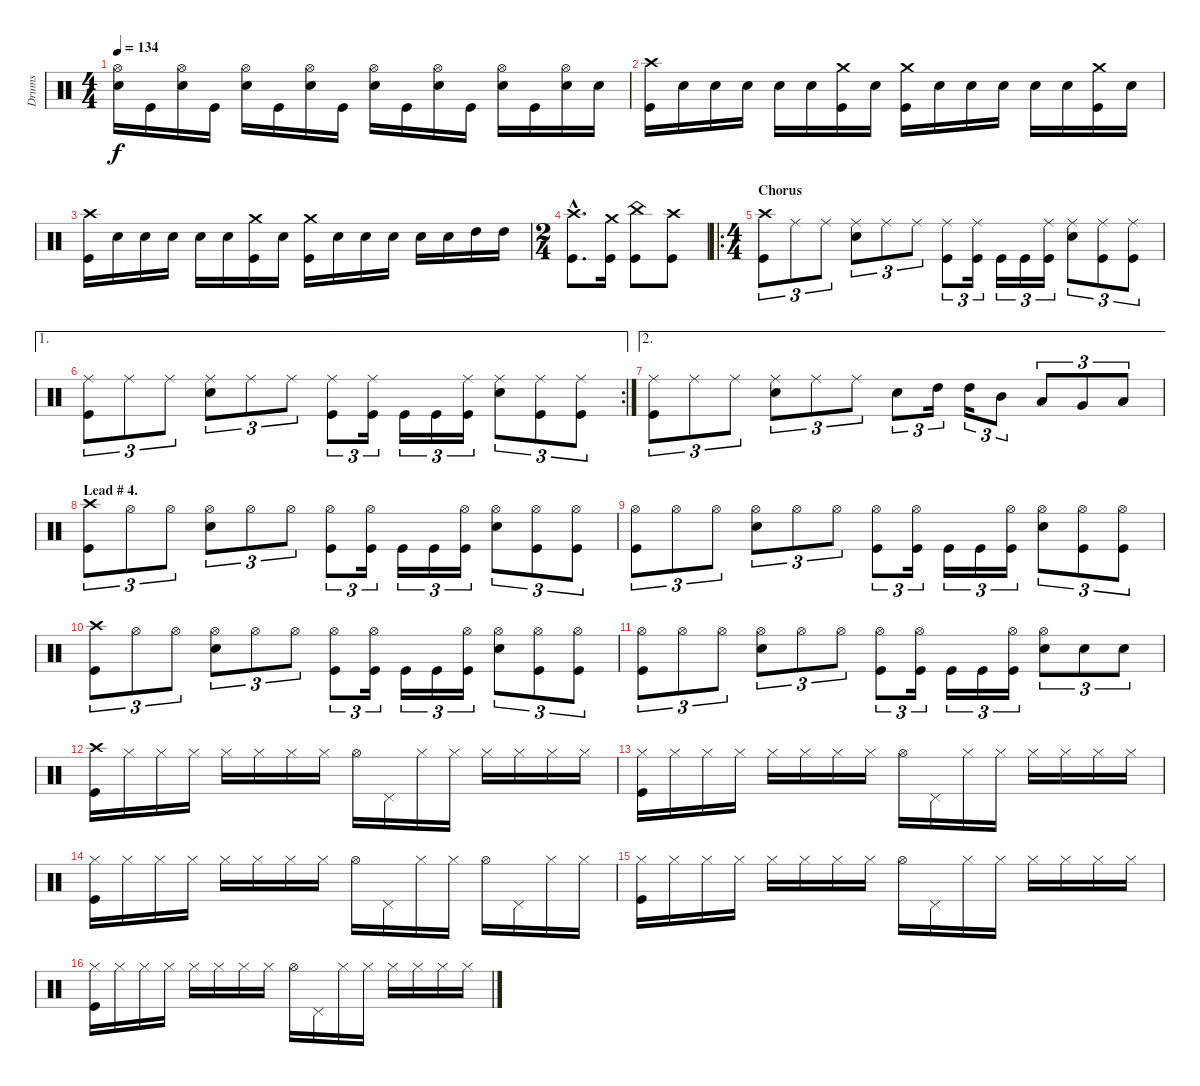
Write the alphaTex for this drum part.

\track ("Drums" "Drums") {instrument percussion}
\staff {score}
\articulation defaults
\ts (4 4)
\tempo 134
\clef neutral
\ks c
("Hi-Hat (open)" "Electric Snare (hit)").16{dy f} "Kick (hit)".16 ("Hi-Hat (open)" "Electric Snare (hit)").16 "Kick (hit)".16 ("Hi-Hat (open)" "Electric Snare (hit)").16 "Kick (hit)".16 ("Hi-Hat (open)" "Electric Snare (hit)").16 "Kick (hit)".16 ("Hi-Hat (open)" "Electric Snare (hit)").16 "Kick (hit)".16 ("Hi-Hat (open)" "Electric Snare (hit)").16 "Kick (hit)".16 ("Hi-Hat (open)" "Electric Snare (hit)").16 "Kick (hit)".16 ("Hi-Hat (open)" "Electric Snare (hit)").16 "Electric Snare (hit)".16 |
("Crash high (hit)" "Kick (hit)").16 "Electric Snare (hit)".16 "Electric Snare (hit)".16 "Electric Snare (hit)".16 "Electric Snare (hit)".16 "Electric Snare (hit)".16 ("Crash medium (hit)" "Kick (hit)").16 "Electric Snare (hit)".16 ("Crash medium (hit)" "Kick (hit)").16 "Electric Snare (hit)".16 "Electric Snare (hit)".16 "Electric Snare (hit)".16 "Electric Snare (hit)".16 "Electric Snare (hit)".16 ("Crash medium (hit)" "Kick (hit)").16 "Electric Snare (hit)".16 |
("Crash high (hit)" "Kick (hit)").16 "Electric Snare (hit)".16 "Electric Snare (hit)".16 "Electric Snare (hit)".16 "Electric Snare (hit)".16 "Electric Snare (hit)".16 ("Crash medium (hit)" "Kick (hit)").16 "Electric Snare (hit)".16 ("Crash medium (hit)" "Kick (hit)").16 "Electric Snare (hit)".16 "Electric Snare (hit)".16 "Electric Snare (hit)".16 "Electric Snare (hit)".16 "Electric Snare (hit)".16 "High Tom (hit)".16 "High Tom (hit)".16 |
\ts (2 4)
("Crash high (hit)"{hac} "Kick (hit)"{hac}).8{d} ("Crash medium (hit)" "Kick (hit)").16 ("China (hit)" "Kick (hit)").8 ("Crash high (hit)" "Kick (hit)").8 |
\ro
\ts (4 4)
\section ("" "Chorus")
("Crash high (hit)" "Kick (hit)").8{tu (3 2)} "Ride (middle)".8{tu (3 2)} "Ride (middle)".8{tu (3 2)} ("Ride (middle)" "Electric Snare (hit)").8{tu (3 2)} "Ride (middle)".8{tu (3 2)} "Ride (middle)".8{tu (3 2)} ("Ride (middle)" "Kick (hit)").8{tu (3 2)} ("Ride (middle)" "Kick (hit)").16{tu (3 2)} "Kick (hit)".16{tu (3 2)} "Kick (hit)".16{tu (3 2)} ("Ride (middle)" "Kick (hit)").16{tu (3 2)} ("Ride (middle)" "Electric Snare (hit)").8{tu (3 2)} ("Ride (middle)" "Kick (hit)").8{tu (3 2)} ("Ride (middle)" "Kick (hit)").8{tu (3 2)} |
\ae 1
\rc 2
("Ride (middle)" "Kick (hit)").8{tu (3 2)} "Ride (middle)".8{tu (3 2)} "Ride (middle)".8{tu (3 2)} ("Ride (middle)" "Electric Snare (hit)").8{tu (3 2)} "Ride (middle)".8{tu (3 2)} "Ride (middle)".8{tu (3 2)} ("Ride (middle)" "Kick (hit)").8{tu (3 2)} ("Ride (middle)" "Kick (hit)").16{tu (3 2)} "Kick (hit)".16{tu (3 2)} "Kick (hit)".16{tu (3 2)} ("Ride (middle)" "Kick (hit)").16{tu (3 2)} ("Ride (middle)" "Electric Snare (hit)").8{tu (3 2)} ("Ride (middle)" "Kick (hit)").8{tu (3 2)} ("Ride (middle)" "Kick (hit)").8{tu (3 2)} |
\ae 2
("Ride (middle)" "Kick (hit)").8{tu (3 2)} "Ride (middle)".8{tu (3 2)} "Ride (middle)".8{tu (3 2)} ("Ride (middle)" "Electric Snare (hit)").8{tu (3 2)} "Ride (middle)".8{tu (3 2)} "Ride (middle)".8{tu (3 2)} "Electric Snare (hit)".8{tu (3 2)} "High Tom (hit)".16{tu (3 2)} "High Tom (hit)".16{tu (3 2)} "Mid Tom (hit)".8{tu (3 2)} "Low Tom (hit)".8{tu (3 2)} "Very Low Tom (hit)".8{tu (3 2)} "Low Floor Tom (hit)".8{tu (3 2)} |
\section ("" "Lead # 4.")
("Crash high (hit)" "Kick (hit)").8{tu (3 2)} "Hi-Hat (open)".8{tu (3 2)} "Hi-Hat (open)".8{tu (3 2)} ("Hi-Hat (open)" "Electric Snare (hit)").8{tu (3 2)} "Hi-Hat (open)".8{tu (3 2)} "Hi-Hat (open)".8{tu (3 2)} ("Hi-Hat (open)" "Kick (hit)").8{tu (3 2)} ("Hi-Hat (open)" "Kick (hit)").16{tu (3 2)} "Kick (hit)".16{tu (3 2)} "Kick (hit)".16{tu (3 2)} ("Hi-Hat (open)" "Kick (hit)").16{tu (3 2)} ("Hi-Hat (open)" "Electric Snare (hit)").8{tu (3 2)} ("Hi-Hat (open)" "Kick (hit)").8{tu (3 2)} ("Hi-Hat (open)" "Kick (hit)").8{tu (3 2)} |
("Hi-Hat (open)" "Kick (hit)").8{tu (3 2)} "Hi-Hat (open)".8{tu (3 2)} "Hi-Hat (open)".8{tu (3 2)} ("Hi-Hat (open)" "Electric Snare (hit)").8{tu (3 2)} "Hi-Hat (open)".8{tu (3 2)} "Hi-Hat (open)".8{tu (3 2)} ("Hi-Hat (open)" "Kick (hit)").8{tu (3 2)} ("Hi-Hat (open)" "Kick (hit)").16{tu (3 2)} "Kick (hit)".16{tu (3 2)} "Kick (hit)".16{tu (3 2)} ("Hi-Hat (open)" "Kick (hit)").16{tu (3 2)} ("Hi-Hat (open)" "Electric Snare (hit)").8{tu (3 2)} ("Hi-Hat (open)" "Kick (hit)").8{tu (3 2)} ("Hi-Hat (open)" "Kick (hit)").8{tu (3 2)} |
("Crash high (hit)" "Kick (hit)").8{tu (3 2)} "Hi-Hat (open)".8{tu (3 2)} "Hi-Hat (open)".8{tu (3 2)} ("Hi-Hat (open)" "Electric Snare (hit)").8{tu (3 2)} "Hi-Hat (open)".8{tu (3 2)} "Hi-Hat (open)".8{tu (3 2)} ("Hi-Hat (open)" "Kick (hit)").8{tu (3 2)} ("Hi-Hat (open)" "Kick (hit)").16{tu (3 2)} "Kick (hit)".16{tu (3 2)} "Kick (hit)".16{tu (3 2)} ("Hi-Hat (open)" "Kick (hit)").16{tu (3 2)} ("Hi-Hat (open)" "Electric Snare (hit)").8{tu (3 2)} ("Hi-Hat (open)" "Kick (hit)").8{tu (3 2)} ("Hi-Hat (open)" "Kick (hit)").8{tu (3 2)} |
("Hi-Hat (open)" "Kick (hit)").8{tu (3 2)} "Hi-Hat (open)".8{tu (3 2)} "Hi-Hat (open)".8{tu (3 2)} ("Hi-Hat (open)" "Electric Snare (hit)").8{tu (3 2)} "Hi-Hat (open)".8{tu (3 2)} "Hi-Hat (open)".8{tu (3 2)} ("Hi-Hat (open)" "Kick (hit)").8{tu (3 2)} ("Hi-Hat (open)" "Kick (hit)").16{tu (3 2)} "Kick (hit)".16{tu (3 2)} "Kick (hit)".16{tu (3 2)} ("Hi-Hat (open)" "Kick (hit)").16{tu (3 2)} ("Hi-Hat (open)" "Electric Snare (hit)").8{tu (3 2)} "Electric Snare (hit)".8{tu (3 2)} "Electric Snare (hit)".8{tu (3 2)} |
("Crash high (hit)" "Kick (hit)").16 "Hi-Hat (closed)".16 "Hi-Hat (closed)".16 "Hi-Hat (closed)".16 "Hi-Hat (closed)".16 "Hi-Hat (closed)".16 "Hi-Hat (closed)".16 "Hi-Hat (closed)".16 "Hi-Hat (open)".16 "Pedal Hi-Hat (hit)".16 "Hi-Hat (closed)".16 "Hi-Hat (closed)".16 "Hi-Hat (closed)".16 "Hi-Hat (closed)".16 "Hi-Hat (closed)".16 "Hi-Hat (closed)".16 |
("Hi-Hat (closed)" "Kick (hit)").16 "Hi-Hat (closed)".16 "Hi-Hat (closed)".16 "Hi-Hat (closed)".16 "Hi-Hat (closed)".16 "Hi-Hat (closed)".16 "Hi-Hat (closed)".16 "Hi-Hat (closed)".16 "Hi-Hat (open)".16 "Pedal Hi-Hat (hit)".16 "Hi-Hat (closed)".16 "Hi-Hat (closed)".16 "Hi-Hat (closed)".16 "Hi-Hat (closed)".16 "Hi-Hat (closed)".16 "Hi-Hat (closed)".16 |
("Hi-Hat (closed)" "Kick (hit)").16 "Hi-Hat (closed)".16 "Hi-Hat (closed)".16 "Hi-Hat (closed)".16 "Hi-Hat (closed)".16 "Hi-Hat (closed)".16 "Hi-Hat (closed)".16 "Hi-Hat (closed)".16 "Hi-Hat (open)".16 "Pedal Hi-Hat (hit)".16 "Hi-Hat (closed)".16 "Hi-Hat (closed)".16 "Hi-Hat (open)".16 "Pedal Hi-Hat (hit)".16 "Hi-Hat (closed)".16 "Hi-Hat (closed)".16 |
("Hi-Hat (closed)" "Kick (hit)").16 "Hi-Hat (closed)".16 "Hi-Hat (closed)".16 "Hi-Hat (closed)".16 "Hi-Hat (closed)".16 "Hi-Hat (closed)".16 "Hi-Hat (closed)".16 "Hi-Hat (closed)".16 "Hi-Hat (open)".16 "Pedal Hi-Hat (hit)".16 "Hi-Hat (closed)".16 "Hi-Hat (closed)".16 "Hi-Hat (closed)".16 "Hi-Hat (closed)".16 "Hi-Hat (closed)".16 "Hi-Hat (closed)".16 |
("Hi-Hat (closed)" "Kick (hit)").16 "Hi-Hat (closed)".16 "Hi-Hat (closed)".16 "Hi-Hat (closed)".16 "Hi-Hat (closed)".16 "Hi-Hat (closed)".16 "Hi-Hat (closed)".16 "Hi-Hat (closed)".16 "Hi-Hat (open)".16 "Pedal Hi-Hat (hit)".16 "Hi-Hat (closed)".16 "Hi-Hat (closed)".16 "Hi-Hat (closed)".16 "Hi-Hat (closed)".16 "Hi-Hat (closed)".16 "Hi-Hat (closed)".16
